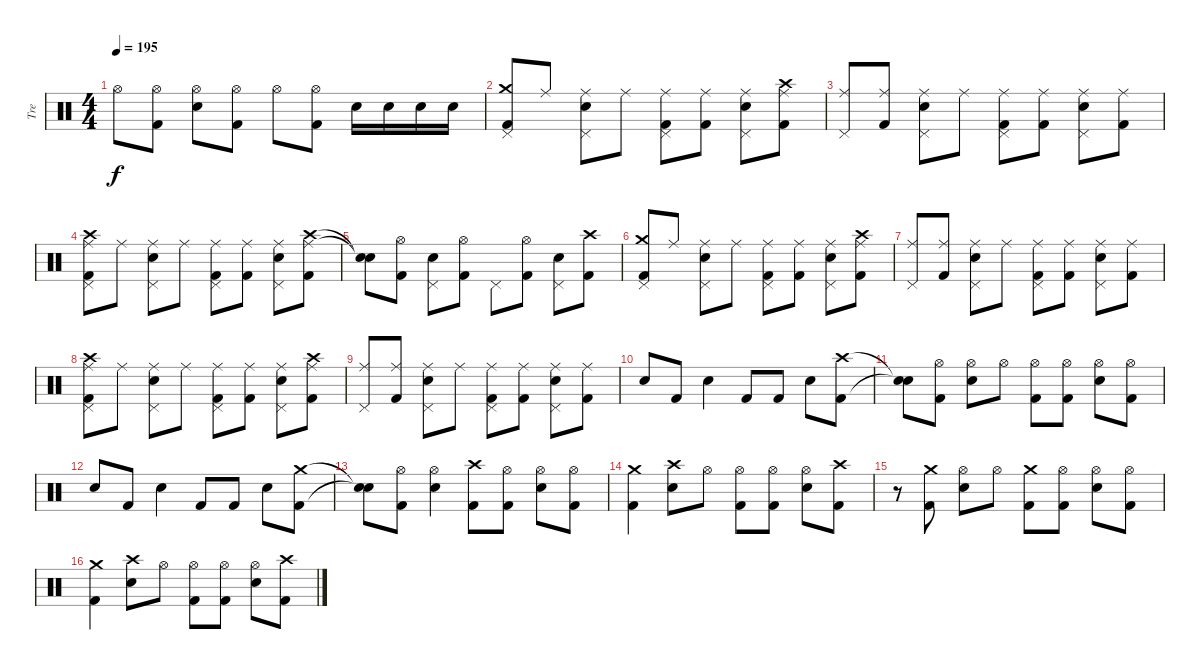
\track ("Tre" "Tre") {instrument percussion}
\staff {score}
\articulation defaults
\ts (4 4)
\tempo 195
\clef neutral
\ks c "Hi-Hat (open)".8{dy f}
("Hi-Hat (open)" "Kick (hit) 2").8 ("Hi-Hat (open)" "Electric Snare (hit)").8 ("Hi-Hat (open)" "Kick (hit) 2").8 "Hi-Hat (open)".8 ("Hi-Hat (open)" "Kick (hit) 2").8 "Electric Snare (hit)".16 "Electric Snare (hit)".16 "Electric Snare (hit)".16 "Electric Snare (hit)".16 |
("Crash medium (hit)" "Pedal Hi-Hat (hit)" "Kick (hit) 2").8 "Ride (middle)".8 ("Pedal Hi-Hat (hit)" "Ride (middle)" "Electric Snare (hit)").8 "Ride (middle)".8 ("Pedal Hi-Hat (hit)" "Ride (middle)" "Kick (hit) 2").8 ("Ride (middle)" "Kick (hit) 2").8 ("Pedal Hi-Hat (hit)" "Ride (middle)" "Electric Snare (hit)").8 ("Crash high (hit)" "Ride (middle)" "Kick (hit) 2").8 |
("Pedal Hi-Hat (hit)" "Ride (middle)").8 ("Ride (middle)" "Kick (hit) 2").8 ("Pedal Hi-Hat (hit)" "Ride (middle)" "Electric Snare (hit)").8 "Ride (middle)".8 ("Pedal Hi-Hat (hit)" "Ride (middle)" "Kick (hit) 2").8 ("Ride (middle)" "Kick (hit) 2").8 ("Pedal Hi-Hat (hit)" "Ride (middle)" "Electric Snare (hit)").8 ("Ride (middle)" "Kick (hit) 2").8 |
("Crash high (hit)" "Pedal Hi-Hat (hit)" "Ride (middle)" "Kick (hit) 2").8 "Ride (middle)".8 ("Pedal Hi-Hat (hit)" "Ride (middle)" "Electric Snare (hit)").8 "Ride (middle)".8 ("Pedal Hi-Hat (hit)" "Ride (middle)" "Kick (hit) 2").8 ("Ride (middle)" "Kick (hit) 2").8 ("Pedal Hi-Hat (hit)" "Ride (middle)" "Electric Snare (hit)").8 ("Crash high (hit)" "Ride (middle)" "Kick (hit) 2").8 |
("Snare (hit)"{t} "Snare (hit)"{t}).8 ("Hi-Hat (open)" "Kick (hit) 2").8 ("Pedal Hi-Hat (hit)" "Electric Snare (hit)").8 ("Hi-Hat (open)" "Kick (hit) 2").8 "Pedal Hi-Hat (hit)".8 ("Hi-Hat (open)" "Kick (hit) 2").8 ("Pedal Hi-Hat (hit)" "Electric Snare (hit)").8 ("Crash high (hit)" "Kick (hit) 2").8 |
("Crash medium (hit)" "Pedal Hi-Hat (hit)" "Kick (hit) 2").8 "Ride (middle)".8 ("Pedal Hi-Hat (hit)" "Ride (middle)" "Electric Snare (hit)").8 "Ride (middle)".8 ("Pedal Hi-Hat (hit)" "Ride (middle)" "Kick (hit) 2").8 ("Ride (middle)" "Kick (hit) 2").8 ("Pedal Hi-Hat (hit)" "Ride (middle)" "Electric Snare (hit)").8 ("Crash high (hit)" "Ride (middle)" "Kick (hit) 2").8 |
("Pedal Hi-Hat (hit)" "Ride (middle)").8 ("Ride (middle)" "Kick (hit) 2").8 ("Pedal Hi-Hat (hit)" "Ride (middle)" "Electric Snare (hit)").8 "Ride (middle)".8 ("Pedal Hi-Hat (hit)" "Ride (middle)" "Kick (hit) 2").8 ("Ride (middle)" "Kick (hit) 2").8 ("Pedal Hi-Hat (hit)" "Ride (middle)" "Electric Snare (hit)").8 ("Ride (middle)" "Kick (hit) 2").8 |
("Crash high (hit)" "Pedal Hi-Hat (hit)" "Ride (middle)" "Kick (hit) 2").8 "Ride (middle)".8 ("Pedal Hi-Hat (hit)" "Ride (middle)" "Electric Snare (hit)").8 "Ride (middle)".8 ("Pedal Hi-Hat (hit)" "Ride (middle)" "Kick (hit) 2").8 ("Ride (middle)" "Kick (hit) 2").8 ("Pedal Hi-Hat (hit)" "Ride (middle)" "Electric Snare (hit)").8 ("Crash high (hit)" "Ride (middle)" "Kick (hit) 2").8 |
("Pedal Hi-Hat (hit)" "Ride (middle)").8 ("Ride (middle)" "Kick (hit) 2").8 ("Pedal Hi-Hat (hit)" "Ride (middle)" "Electric Snare (hit)").8 "Ride (middle)".8 ("Pedal Hi-Hat (hit)" "Ride (middle)" "Kick (hit) 2").8 ("Ride (middle)" "Kick (hit) 2").8 ("Pedal Hi-Hat (hit)" "Ride (middle)" "Electric Snare (hit)").8 ("Ride (middle)" "Kick (hit) 2").8 |
"Electric Snare (hit)".8 "Kick (hit) 2".8 "Electric Snare (hit)".4 "Kick (hit) 2".8 "Kick (hit) 2".8 "Electric Snare (hit)".8 ("Crash high (hit)" "Kick (hit) 2").8 |
("Snare (hit)"{t} "Snare (hit)"{t}).8 ("Hi-Hat (open)" "Kick (hit) 2").8 ("Hi-Hat (open)" "Electric Snare (hit)").8 "Hi-Hat (open)".8 ("Hi-Hat (open)" "Kick (hit) 2").8 ("Hi-Hat (open)" "Kick (hit) 2").8 ("Hi-Hat (open)" "Electric Snare (hit)").8 ("Hi-Hat (open)" "Kick (hit) 2").8 |
"Electric Snare (hit)".8 "Kick (hit) 2".8 "Electric Snare (hit)".4 "Kick (hit) 2".8 "Kick (hit) 2".8 "Electric Snare (hit)".8 ("Crash medium (hit)" "Kick (hit) 2").8 |
("Snare (hit)"{t} "Snare (hit)"{t}).8 ("Hi-Hat (open)" "Kick (hit) 2").8 ("Hi-Hat (open)" "Electric Snare (hit)").4 ("Crash high (hit)" "Kick (hit) 2").8 ("Hi-Hat (open)" "Kick (hit) 2").8 ("Hi-Hat (open)" "Electric Snare (hit)").8 ("Hi-Hat (open)" "Kick (hit) 2").8 |
("Crash medium (hit)" "Kick (hit) 2").4 ("Crash high (hit)" "Electric Snare (hit)").8 "Hi-Hat (open)".8 ("Hi-Hat (open)" "Kick (hit) 2").8 ("Hi-Hat (open)" "Kick (hit) 2").8 ("Hi-Hat (open)" "Electric Snare (hit)").8 ("Crash high (hit)" "Kick (hit) 2").8 |
r.8 ("Crash medium (hit)" "Kick (hit) 2").8 ("Hi-Hat (open)" "Electric Snare (hit)").8 "Hi-Hat (open)".8 ("Crash medium (hit)" "Kick (hit) 2").8 ("Hi-Hat (open)" "Kick (hit) 2").8 ("Hi-Hat (open)" "Electric Snare (hit)").8 ("Hi-Hat (open)" "Kick (hit) 2").8 |
("Crash medium (hit)" "Kick (hit) 2").4 ("Crash high (hit)" "Electric Snare (hit)").8 "Hi-Hat (open)".8 ("Hi-Hat (open)" "Kick (hit) 2").8 ("Hi-Hat (open)" "Kick (hit) 2").8 ("Hi-Hat (open)" "Electric Snare (hit)").8 ("Crash high (hit)" "Kick (hit) 2").8
